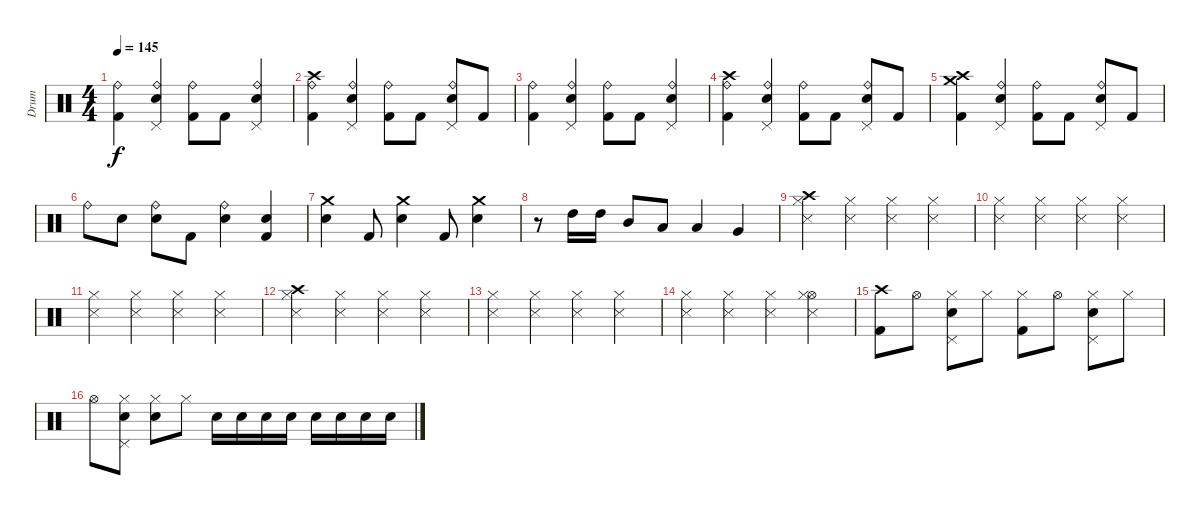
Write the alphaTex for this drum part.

\track ("Drum" "Drum") {instrument percussion}
\staff {score}
\articulation defaults
\ts (4 4)
\tempo 145
\clef neutral
\ks c
("Ride (bell)" "Kick (hit) 2").4{dy f} ("Ride (bell)" "Snare (hit) 2" "Pedal Hi-Hat (hit)").4 ("Ride (bell)" "Kick (hit) 2").8 "Kick (hit) 2".8 ("Ride (bell)" "Snare (hit) 2" "Pedal Hi-Hat (hit)").4 |
("Ride (bell)" "Crash high (hit)" "Kick (hit) 2").4 ("Ride (bell)" "Snare (hit) 2" "Pedal Hi-Hat (hit)").4 ("Ride (bell)" "Kick (hit) 2").8 "Kick (hit) 2".8 ("Ride (bell)" "Snare (hit) 2" "Pedal Hi-Hat (hit)").8 "Kick (hit) 2".8 |
("Ride (bell)" "Kick (hit) 2").4 ("Ride (bell)" "Snare (hit) 2" "Pedal Hi-Hat (hit)").4 ("Ride (bell)" "Kick (hit) 2").8 "Kick (hit) 2".8 ("Ride (bell)" "Snare (hit) 2" "Pedal Hi-Hat (hit)").4 |
("Ride (bell)" "Crash high (hit)" "Kick (hit) 2").4 ("Ride (bell)" "Snare (hit) 2" "Pedal Hi-Hat (hit)").4 ("Ride (bell)" "Kick (hit) 2").8 "Kick (hit) 2".8 ("Ride (bell)" "Snare (hit) 2" "Pedal Hi-Hat (hit)").8 "Kick (hit) 2".8 |
("Crash medium (hit)" "Crash high (hit)" "Kick (hit) 2").4 ("Ride (bell)" "Snare (hit) 2" "Pedal Hi-Hat (hit)").4 ("Ride (bell)" "Kick (hit) 2").8 "Kick (hit) 2".8 ("Ride (bell)" "Snare (hit) 2" "Pedal Hi-Hat (hit)").8 "Kick (hit) 2".8 |
"Ride (bell)".8 "Snare (hit) 2".8 ("Ride (bell)" "Snare (hit) 2").8 "Kick (hit) 2".8 ("Ride (bell)" "Snare (hit) 2").4 ("Snare (hit) 2" "Kick (hit) 2").4 |
("Crash medium (hit)" "Snare (hit) 2").4 "Kick (hit) 2".8 ("Crash medium (hit)" "Snare (hit) 2").4 "Kick (hit) 2".8 ("Crash medium (hit)" "Snare (hit) 2").4 |
r.8 "High Tom (hit)".16 "High Tom (hit)".16 "Mid Tom (hit)".8 "Low Tom (hit)".8 "Low Tom (hit)".4 "Very Low Tom (hit)".4 |
("Crash high (hit)" "Snare (side stick) 3" "Hi-Hat (closed)").4 ("Snare (side stick) 3" "Hi-Hat (closed)").4 ("Snare (side stick) 3" "Hi-Hat (closed)").4 ("Snare (side stick) 3" "Hi-Hat (closed)").4 |
("Snare (side stick) 3" "Hi-Hat (closed)").4 ("Snare (side stick) 3" "Hi-Hat (closed)").4 ("Snare (side stick) 3" "Hi-Hat (closed)").4 ("Snare (side stick) 3" "Hi-Hat (closed)").4 |
("Snare (side stick) 3" "Hi-Hat (closed)").4 ("Snare (side stick) 3" "Hi-Hat (closed)").4 ("Snare (side stick) 3" "Hi-Hat (closed)").4 ("Snare (side stick) 3" "Hi-Hat (closed)").4 |
("Crash high (hit)" "Snare (side stick) 3" "Hi-Hat (closed)").4 ("Snare (side stick) 3" "Hi-Hat (closed)").4 ("Snare (side stick) 3" "Hi-Hat (closed)").4 ("Snare (side stick) 3" "Hi-Hat (closed)").4 |
("Snare (side stick) 3" "Hi-Hat (closed)").4 ("Snare (side stick) 3" "Hi-Hat (closed)").4 ("Snare (side stick) 3" "Hi-Hat (closed)").4 ("Snare (side stick) 3" "Hi-Hat (closed)").4 |
("Snare (side stick) 3" "Hi-Hat (closed)").4 ("Snare (side stick) 3" "Hi-Hat (closed)").4 ("Snare (side stick) 3" "Hi-Hat (closed)").4 ("Hi-Hat (open)" "Snare (side stick) 3" "Hi-Hat (closed)").4 |
("Crash high (hit)" "Kick (hit) 2").8 "Hi-Hat (open)".8 ("Hi-Hat (closed)" "Snare (hit) 2" "Pedal Hi-Hat (hit)").8 "Hi-Hat (closed)".8 ("Hi-Hat (closed)" "Kick (hit) 2").8 "Hi-Hat (open)".8 ("Hi-Hat (closed)" "Snare (hit) 2" "Pedal Hi-Hat (hit)").8 "Hi-Hat (closed)".8 |
"Hi-Hat (open)".8 ("Hi-Hat (closed)" "Snare (hit) 2" "Pedal Hi-Hat (hit)").8 ("Hi-Hat (closed)" "Snare (hit) 2").8 "Hi-Hat (closed)".8 "Snare (hit) 2".16 "Snare (hit) 2".16 "Snare (hit) 2".16 "Snare (hit) 2".16 "Snare (hit) 2".16 "Snare (hit) 2".16 "Snare (hit) 2".16 "Snare (hit) 2".16
